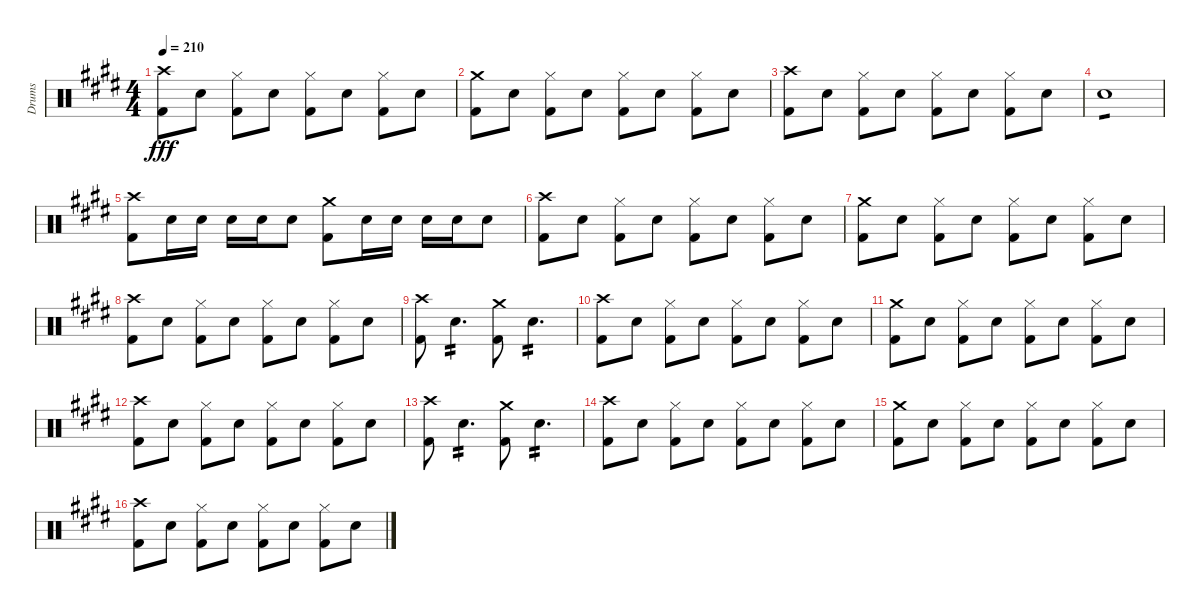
\track ("Drums" "Drums") {instrument percussion}
\staff {score}
\articulation defaults
\ts (4 4)
\tempo 210
\clef neutral
\ks e
("Crash high (hit)" "Kick (hit) 2").8{dy fff} "Snare (hit) 2".8 ("Hi-Hat (closed)" "Kick (hit) 2").8 "Snare (hit) 2".8 ("Hi-Hat (closed)" "Kick (hit) 2").8 "Snare (hit) 2".8 ("Hi-Hat (closed)" "Kick (hit) 2").8 "Snare (hit) 2".8 |
("Crash medium (hit)" "Kick (hit) 2").8 "Snare (hit) 2".8 ("Hi-Hat (closed)" "Kick (hit) 2").8 "Snare (hit) 2".8 ("Hi-Hat (closed)" "Kick (hit) 2").8 "Snare (hit) 2".8 ("Hi-Hat (closed)" "Kick (hit) 2").8 "Snare (hit) 2".8 |
("Crash high (hit)" "Kick (hit) 2").8 "Snare (hit) 2".8 ("Hi-Hat (closed)" "Kick (hit) 2").8 "Snare (hit) 2".8 ("Hi-Hat (closed)" "Kick (hit) 2").8 "Snare (hit) 2".8 ("Hi-Hat (closed)" "Kick (hit) 2").8 "Snare (hit) 2".8 |
"Snare (hit) 2".1{tp 1} |
("Crash high (hit)" "Kick (hit) 2").8 "Snare (hit) 2".16 "Snare (hit) 2".16 "Snare (hit) 2".16 "Snare (hit) 2".16 "Snare (hit) 2".8 ("Crash medium (hit)" "Kick (hit) 2").8 "Snare (hit) 2".16 "Snare (hit) 2".16 "Snare (hit) 2".16 "Snare (hit) 2".16 "Snare (hit) 2".8 |
("Crash high (hit)" "Kick (hit) 2").8 "Snare (hit) 2".8 ("Hi-Hat (closed)" "Kick (hit) 2").8 "Snare (hit) 2".8 ("Hi-Hat (closed)" "Kick (hit) 2").8 "Snare (hit) 2".8 ("Hi-Hat (closed)" "Kick (hit) 2").8 "Snare (hit) 2".8 |
("Crash medium (hit)" "Kick (hit) 2").8 "Snare (hit) 2".8 ("Hi-Hat (closed)" "Kick (hit) 2").8 "Snare (hit) 2".8 ("Hi-Hat (closed)" "Kick (hit) 2").8 "Snare (hit) 2".8 ("Hi-Hat (closed)" "Kick (hit) 2").8 "Snare (hit) 2".8 |
("Crash high (hit)" "Kick (hit) 2").8 "Snare (hit) 2".8 ("Hi-Hat (closed)" "Kick (hit) 2").8 "Snare (hit) 2".8 ("Hi-Hat (closed)" "Kick (hit) 2").8 "Snare (hit) 2".8 ("Hi-Hat (closed)" "Kick (hit) 2").8 "Snare (hit) 2".8 |
("Kick (hit) 2" "Crash high (hit)").8 "Snare (hit) 2".4{d tp 2} ("Kick (hit) 2" "Crash medium (hit)").8 "Snare (hit) 2".4{d tp 2} |
("Crash high (hit)" "Kick (hit) 2").8 "Snare (hit) 2".8 ("Hi-Hat (closed)" "Kick (hit) 2").8 "Snare (hit) 2".8 ("Hi-Hat (closed)" "Kick (hit) 2").8 "Snare (hit) 2".8 ("Hi-Hat (closed)" "Kick (hit) 2").8 "Snare (hit) 2".8 |
("Crash medium (hit)" "Kick (hit) 2").8 "Snare (hit) 2".8 ("Hi-Hat (closed)" "Kick (hit) 2").8 "Snare (hit) 2".8 ("Hi-Hat (closed)" "Kick (hit) 2").8 "Snare (hit) 2".8 ("Hi-Hat (closed)" "Kick (hit) 2").8 "Snare (hit) 2".8 |
("Crash high (hit)" "Kick (hit) 2").8 "Snare (hit) 2".8 ("Hi-Hat (closed)" "Kick (hit) 2").8 "Snare (hit) 2".8 ("Hi-Hat (closed)" "Kick (hit) 2").8 "Snare (hit) 2".8 ("Hi-Hat (closed)" "Kick (hit) 2").8 "Snare (hit) 2".8 |
("Kick (hit) 2" "Crash high (hit)").8 "Snare (hit) 2".4{d tp 2} ("Kick (hit) 2" "Crash medium (hit)").8 "Snare (hit) 2".4{d tp 2} |
("Crash high (hit)" "Kick (hit) 2").8 "Snare (hit) 2".8 ("Hi-Hat (closed)" "Kick (hit) 2").8 "Snare (hit) 2".8 ("Hi-Hat (closed)" "Kick (hit) 2").8 "Snare (hit) 2".8 ("Hi-Hat (closed)" "Kick (hit) 2").8 "Snare (hit) 2".8 |
("Crash medium (hit)" "Kick (hit) 2").8 "Snare (hit) 2".8 ("Hi-Hat (closed)" "Kick (hit) 2").8 "Snare (hit) 2".8 ("Hi-Hat (closed)" "Kick (hit) 2").8 "Snare (hit) 2".8 ("Hi-Hat (closed)" "Kick (hit) 2").8 "Snare (hit) 2".8 |
("Crash high (hit)" "Kick (hit) 2").8 "Snare (hit) 2".8 ("Hi-Hat (closed)" "Kick (hit) 2").8 "Snare (hit) 2".8 ("Hi-Hat (closed)" "Kick (hit) 2").8 "Snare (hit) 2".8 ("Hi-Hat (closed)" "Kick (hit) 2").8 "Snare (hit) 2".8
